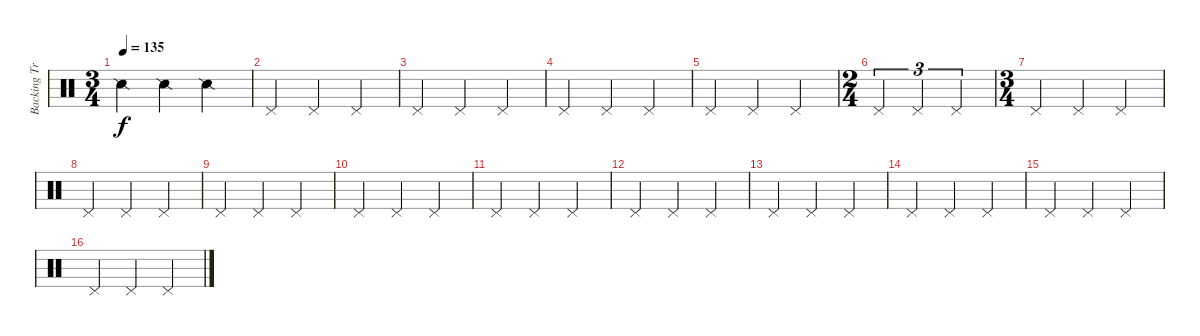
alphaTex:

\track ("Backing Track" "Backing Tr") {instrument percussion}
\staff {score}
\articulation defaults
\ts (3 4)
\tempo 135
\clef neutral
\ks c "Snare (side stick) 2".4{dy f} "Snare (side stick) 2".4 "Snare (side stick) 2".4
|
"Pedal Hi-Hat (hit)".4 "Pedal Hi-Hat (hit)".4 "Pedal Hi-Hat (hit)".4 |
"Pedal Hi-Hat (hit)".4 "Pedal Hi-Hat (hit)".4 "Pedal Hi-Hat (hit)".4 |
"Pedal Hi-Hat (hit)".4 "Pedal Hi-Hat (hit)".4 "Pedal Hi-Hat (hit)".4 |
"Pedal Hi-Hat (hit)".4 "Pedal Hi-Hat (hit)".4 "Pedal Hi-Hat (hit)".4 |
\ts (2 4)
"Pedal Hi-Hat (hit)".4{tu (3 2)} "Pedal Hi-Hat (hit)".4{tu (3 2)} "Pedal Hi-Hat (hit)".4{tu (3 2)} |
\ts (3 4)
"Pedal Hi-Hat (hit)".4 "Pedal Hi-Hat (hit)".4 "Pedal Hi-Hat (hit)".4 |
"Pedal Hi-Hat (hit)".4 "Pedal Hi-Hat (hit)".4 "Pedal Hi-Hat (hit)".4 |
"Pedal Hi-Hat (hit)".4 "Pedal Hi-Hat (hit)".4 "Pedal Hi-Hat (hit)".4 |
"Pedal Hi-Hat (hit)".4 "Pedal Hi-Hat (hit)".4 "Pedal Hi-Hat (hit)".4 |
"Pedal Hi-Hat (hit)".4 "Pedal Hi-Hat (hit)".4 "Pedal Hi-Hat (hit)".4 |
"Pedal Hi-Hat (hit)".4 "Pedal Hi-Hat (hit)".4 "Pedal Hi-Hat (hit)".4 |
"Pedal Hi-Hat (hit)".4 "Pedal Hi-Hat (hit)".4 "Pedal Hi-Hat (hit)".4 |
"Pedal Hi-Hat (hit)".4 "Pedal Hi-Hat (hit)".4 "Pedal Hi-Hat (hit)".4 |
"Pedal Hi-Hat (hit)".4 "Pedal Hi-Hat (hit)".4 "Pedal Hi-Hat (hit)".4 |
"Pedal Hi-Hat (hit)".4 "Pedal Hi-Hat (hit)".4 "Pedal Hi-Hat (hit)".4
